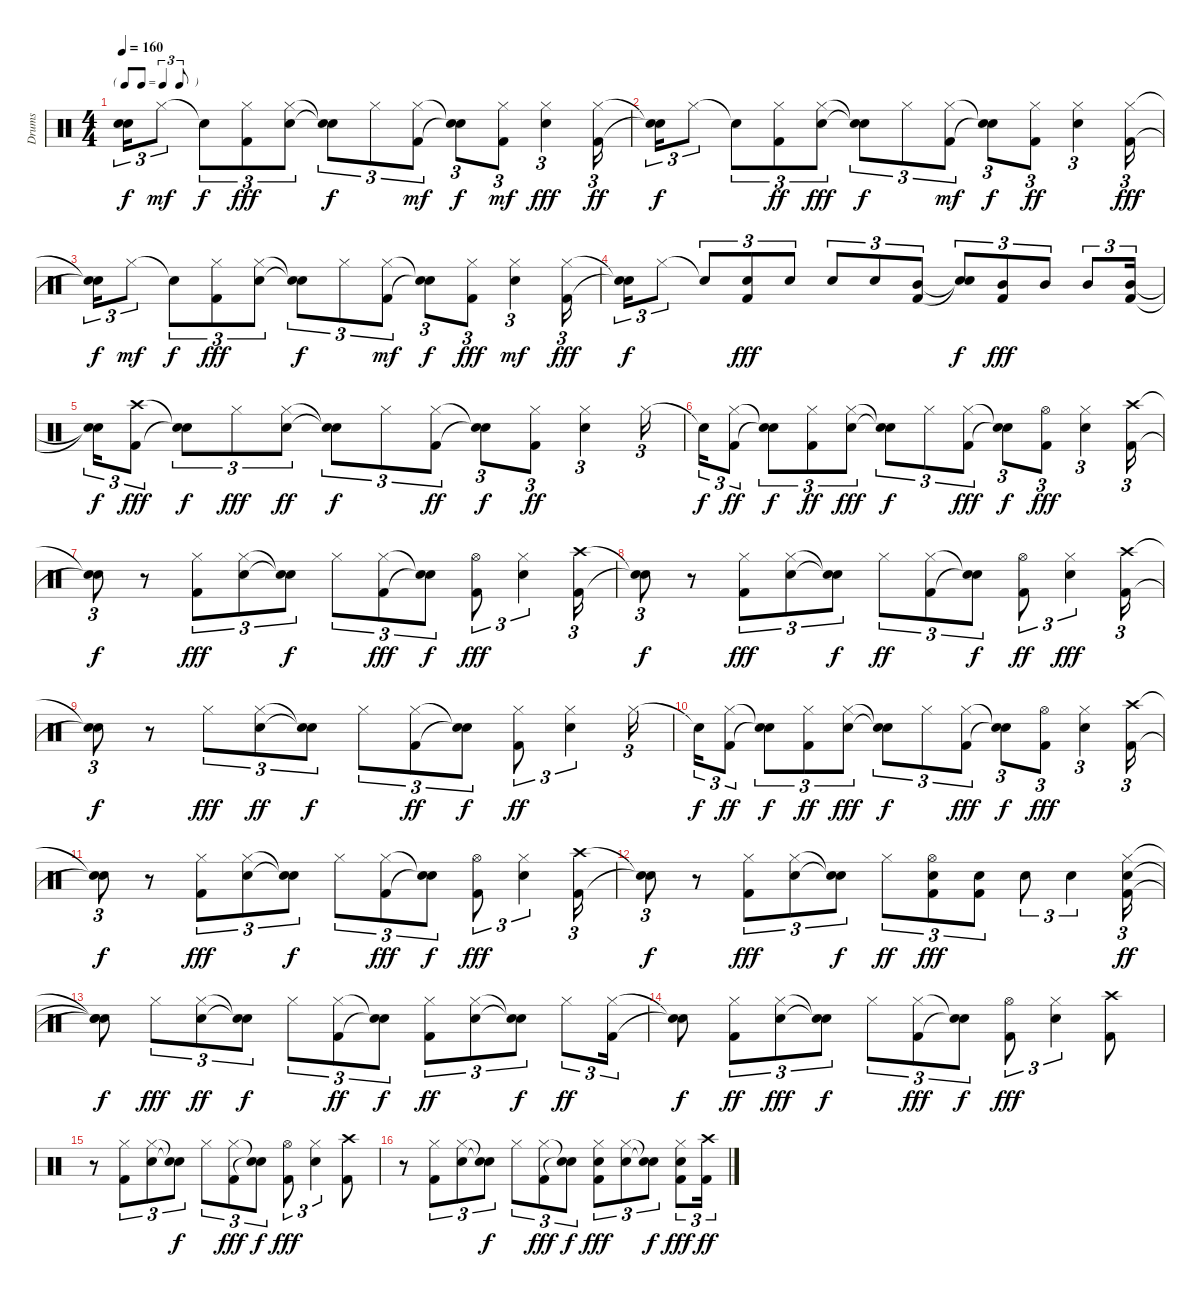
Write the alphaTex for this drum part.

\track ("Drums" "Drums") {instrument percussion}
\staff {score}
\articulation defaults
\ts (4 4)
\tf triplet8th
\tempo 160
\clef neutral
\ks c
("Snare (hit)"{t} "Snare (hit)"{t}).16{tu (3 2) dy f} "Hi-Hat (closed)".8{tu (3 2) dy mf} "Snare (hit)"{t}.8{tu (3 2) dy f} ("Kick (hit) 2" "Hi-Hat (closed)").8{tu (3 2) dy fff} ("Electric Snare (hit)" "Hi-Hat (closed)").8{tu (3 2)} ("Snare (hit)"{t} "Snare (hit)"{t}).8{tu (3 2) dy f} "Hi-Hat (closed)".8{tu (3 2)} ("Kick (hit) 2" "Hi-Hat (closed)").8{tu (3 2) dy mf} ("Snare (hit)"{t} "Snare (hit)"{t}).8{tu (3 2) dy f} ("Kick (hit) 2" "Hi-Hat (closed)").8{tu (3 2) dy mf} ("Electric Snare (hit)" "Hi-Hat (closed)").4{tu (3 2) dy fff} ("Kick (hit) 2" "Hi-Hat (closed)").16{tu (3 2) dy ff} |
("Snare (hit)"{t} "Snare (hit)"{t}).16{tu (3 2) dy f} "Hi-Hat (closed)".8{tu (3 2)} "Snare (hit)"{t}.8{tu (3 2)} ("Kick (hit) 2" "Hi-Hat (closed)").8{tu (3 2) dy ff} ("Hi-Hat (closed)" "Electric Snare (hit)").8{tu (3 2) dy fff} ("Snare (hit)"{t} "Snare (hit)"{t}).8{tu (3 2) dy f} "Hi-Hat (closed)".8{tu (3 2)} ("Kick (hit) 2" "Hi-Hat (closed)").8{tu (3 2) dy mf} ("Snare (hit)"{t} "Snare (hit)"{t}).8{tu (3 2) dy f} ("Kick (hit) 2" "Hi-Hat (closed)").8{tu (3 2) dy ff} ("Electric Snare (hit)" "Hi-Hat (closed)").4{tu (3 2)} ("Kick (hit) 2" "Hi-Hat (closed)").16{tu (3 2) dy fff} |
("Snare (hit)"{t} "Snare (hit)"{t}).16{tu (3 2) dy f} "Hi-Hat (closed)".8{tu (3 2) dy mf} "Snare (hit)"{t}.8{tu (3 2) dy f} ("Kick (hit) 2" "Hi-Hat (closed)").8{tu (3 2) dy fff} ("Hi-Hat (closed)" "Electric Snare (hit)").8{tu (3 2)} ("Snare (hit)"{t} "Snare (hit)"{t}).8{tu (3 2) dy f} "Hi-Hat (closed)".8{tu (3 2)} ("Kick (hit) 2" "Hi-Hat (closed)").8{tu (3 2) dy mf} ("Snare (hit)"{t} "Snare (hit)"{t}).8{tu (3 2) dy f} ("Kick (hit) 2" "Hi-Hat (closed)").8{tu (3 2) dy fff} ("Electric Snare (hit)" "Hi-Hat (closed)").4{tu (3 2) dy mf} ("Kick (hit) 2" "Hi-Hat (closed)").16{tu (3 2) dy fff} |
("Snare (hit)"{t} "Snare (hit)"{t}).16{tu (3 2) dy f} "Hi-Hat (closed)".8{tu (3 2)} "Snare (hit)"{t}.8{tu (3 2)} ("Kick (hit) 2" "Electric Snare (hit)").8{tu (3 2) dy fff} "Electric Snare (hit)".8{tu (3 2)} "Electric Snare (hit)".8{tu (3 2)} "Electric Snare (hit)".8{tu (3 2)} ("Kick (hit) 2" "Mid Tom (hit)").8{tu (3 2)} ("Snare (hit)"{t} "Snare (hit)"{t}).8{tu (3 2) dy f} ("Kick (hit) 2" "Mid Tom (hit)").8{tu (3 2) dy fff} "Mid Tom (hit)".8{tu (3 2)} "Mid Tom (hit)".8{tu (3 2)} ("Kick (hit) 2" "Mid Tom (hit)").16{tu (3 2)} |
("Snare (hit)"{t} "Snare (hit)"{t}).16{tu (3 2) dy f} ("Kick (hit) 2" "Crash high (hit)").8{tu (3 2) dy fff} ("Snare (hit)"{t} "Snare (hit)"{t}).8{tu (3 2) dy f} "Hi-Hat (closed)".8{tu (3 2) dy fff} ("Electric Snare (hit)" "Hi-Hat (closed)").8{tu (3 2) dy ff} ("Snare (hit)"{t} "Snare (hit)"{t}).8{tu (3 2) dy f} "Hi-Hat (closed)".8{tu (3 2)} ("Kick (hit) 2" "Hi-Hat (closed)").8{tu (3 2) dy ff} ("Snare (hit)"{t} "Snare (hit)"{t}).8{tu (3 2) dy f} ("Kick (hit) 2" "Hi-Hat (closed)").8{tu (3 2) dy ff} ("Electric Snare (hit)" "Hi-Hat (closed)").4{tu (3 2)} "Hi-Hat (closed)".16{tu (3 2)} |
"Snare (hit)"{t}.16{tu (3 2) dy f} ("Kick (hit) 2" "Hi-Hat (closed)").8{tu (3 2) dy ff} ("Snare (hit)"{t} "Snare (hit)"{t}).8{tu (3 2) dy f} ("Kick (hit) 2" "Hi-Hat (closed)").8{tu (3 2) dy ff} ("Hi-Hat (closed)" "Electric Snare (hit)").8{tu (3 2) dy fff} ("Snare (hit)"{t} "Snare (hit)"{t}).8{tu (3 2) dy f} "Hi-Hat (closed)".8{tu (3 2)} ("Kick (hit) 2" "Hi-Hat (closed)").8{tu (3 2) dy fff} ("Snare (hit)"{t} "Snare (hit)"{t}).8{tu (3 2) dy f} ("Kick (hit) 2" "Hi-Hat (open)").8{tu (3 2) dy fff} ("Electric Snare (hit)" "Hi-Hat (closed)").4{tu (3 2)} ("Kick (hit) 2" "Crash high (hit)").16{tu (3 2)} |
("Snare (hit)"{t} "Snare (hit)"{t}).8{tu (3 2) dy f} r.8 ("Kick (hit) 2" "Hi-Hat (closed)").8{tu (3 2) dy fff} ("Hi-Hat (closed)" "Electric Snare (hit)").8{tu (3 2)} ("Snare (hit)"{t} "Snare (hit)"{t}).8{tu (3 2) dy f} "Hi-Hat (closed)".8{tu (3 2)} ("Kick (hit) 2" "Hi-Hat (closed)").8{tu (3 2) dy fff} ("Snare (hit)"{t} "Snare (hit)"{t}).8{tu (3 2) dy f} ("Kick (hit) 2" "Hi-Hat (open)").8{tu (3 2) dy fff} ("Hi-Hat (closed)" "Electric Snare (hit)").4{tu (3 2)} ("Kick (hit) 2" "Crash high (hit)").16{tu (3 2)} |
("Snare (hit)"{t} "Snare (hit)"{t}).8{tu (3 2) dy f} r.8 ("Kick (hit) 2" "Hi-Hat (closed)").8{tu (3 2) dy fff} ("Hi-Hat (closed)" "Electric Snare (hit)").8{tu (3 2)} ("Snare (hit)"{t} "Snare (hit)"{t}).8{tu (3 2) dy f} "Hi-Hat (closed)".8{tu (3 2) dy ff} ("Kick (hit) 2" "Hi-Hat (closed)").8{tu (3 2)} ("Snare (hit)"{t} "Snare (hit)"{t}).8{tu (3 2) dy f} ("Kick (hit) 2" "Hi-Hat (open)").8{tu (3 2) dy ff} ("Hi-Hat (closed)" "Electric Snare (hit)").4{tu (3 2) dy fff} ("Kick (hit) 2" "Crash high (hit)").16{tu (3 2)} |
("Snare (hit)"{t} "Snare (hit)"{t}).8{tu (3 2) dy f} r.8 "Hi-Hat (closed)".8{tu (3 2) dy fff} ("Electric Snare (hit)" "Hi-Hat (closed)").8{tu (3 2) dy ff} ("Snare (hit)"{t} "Snare (hit)"{t}).8{tu (3 2) dy f} "Hi-Hat (closed)".8{tu (3 2)} ("Kick (hit) 2" "Hi-Hat (closed)").8{tu (3 2) dy ff} ("Snare (hit)"{t} "Snare (hit)"{t}).8{tu (3 2) dy f} ("Kick (hit) 2" "Hi-Hat (closed)").8{tu (3 2) dy ff} ("Electric Snare (hit)" "Hi-Hat (closed)").4{tu (3 2)} "Hi-Hat (closed)".16{tu (3 2)} |
"Snare (hit)"{t}.16{tu (3 2) dy f} ("Kick (hit) 2" "Hi-Hat (closed)").8{tu (3 2) dy ff} ("Snare (hit)"{t} "Snare (hit)"{t}).8{tu (3 2) dy f} ("Kick (hit) 2" "Hi-Hat (closed)").8{tu (3 2) dy ff} ("Hi-Hat (closed)" "Electric Snare (hit)").8{tu (3 2) dy fff} ("Snare (hit)"{t} "Snare (hit)"{t}).8{tu (3 2) dy f} "Hi-Hat (closed)".8{tu (3 2)} ("Kick (hit) 2" "Hi-Hat (closed)").8{tu (3 2) dy fff} ("Snare (hit)"{t} "Snare (hit)"{t}).8{tu (3 2) dy f} ("Kick (hit) 2" "Hi-Hat (open)").8{tu (3 2) dy fff} ("Electric Snare (hit)" "Hi-Hat (closed)").4{tu (3 2)} ("Kick (hit) 2" "Crash high (hit)").16{tu (3 2)} |
("Snare (hit)"{t} "Snare (hit)"{t}).8{tu (3 2) dy f} r.8 ("Kick (hit) 2" "Hi-Hat (closed)").8{tu (3 2) dy fff} ("Hi-Hat (closed)" "Electric Snare (hit)").8{tu (3 2)} ("Snare (hit)"{t} "Snare (hit)"{t}).8{tu (3 2) dy f} "Hi-Hat (closed)".8{tu (3 2)} ("Kick (hit) 2" "Hi-Hat (closed)").8{tu (3 2) dy fff} ("Snare (hit)"{t} "Snare (hit)"{t}).8{tu (3 2) dy f} ("Kick (hit) 2" "Hi-Hat (open)").8{tu (3 2) dy fff} ("Hi-Hat (closed)" "Electric Snare (hit)").4{tu (3 2)} ("Kick (hit) 2" "Crash high (hit)").16{tu (3 2)} |
("Snare (hit)"{t} "Snare (hit)"{t}).8{tu (3 2) dy f} r.8 ("Kick (hit) 2" "Hi-Hat (closed)").8{tu (3 2) dy fff} ("Hi-Hat (closed)" "Electric Snare (hit)").8{tu (3 2)} ("Snare (hit)"{t} "Snare (hit)"{t}).8{tu (3 2) dy f} "Hi-Hat (closed)".8{tu (3 2) dy ff} ("Kick (hit) 2" "Hi-Hat (open)" "Electric Snare (hit)").8{tu (3 2) dy fff} ("Electric Snare (hit)" "Kick (hit) 2").8{tu (3 2)} "Electric Snare (hit)".8{tu (3 2)} "Electric Snare (hit)".4{tu (3 2)} ("Electric Snare (hit)" "Kick (hit) 2" "Hi-Hat (closed)").16{tu (3 2) dy ff} |
("Snare (hit)"{t} "Snare (hit)"{t} "Snare (hit)"{t}).8{dy f} "Hi-Hat (closed)".8{tu (3 2) dy fff} ("Electric Snare (hit)" "Hi-Hat (closed)").8{tu (3 2) dy ff} ("Snare (hit)"{t} "Snare (hit)"{t}).8{tu (3 2) dy f} "Hi-Hat (closed)".8{tu (3 2)} ("Kick (hit) 2" "Hi-Hat (closed)").8{tu (3 2) dy ff} ("Snare (hit)"{t} "Snare (hit)"{t}).8{tu (3 2) dy f} ("Kick (hit) 2" "Hi-Hat (closed)").8{tu (3 2) dy ff} ("Electric Snare (hit)" "Hi-Hat (closed)").8{tu (3 2)} ("Snare (hit)"{t} "Snare (hit)"{t}).8{tu (3 2) dy f} "Hi-Hat (closed)".8{tu (3 2) dy ff} ("Kick (hit) 2" "Hi-Hat (closed)").16{tu (3 2)} |
("Snare (hit)"{t} "Snare (hit)"{t}).8{dy f} ("Kick (hit) 2" "Hi-Hat (closed)").8{tu (3 2) dy ff} ("Hi-Hat (closed)" "Electric Snare (hit)").8{tu (3 2) dy fff} ("Snare (hit)"{t} "Snare (hit)"{t}).8{tu (3 2) dy f} "Hi-Hat (closed)".8{tu (3 2)} ("Kick (hit) 2" "Hi-Hat (closed)").8{tu (3 2) dy fff} ("Snare (hit)"{t} "Snare (hit)"{t}).8{tu (3 2) dy f} ("Kick (hit) 2" "Hi-Hat (open)").8{tu (3 2) dy fff} ("Electric Snare (hit)" "Hi-Hat (closed)").4{tu (3 2)} ("Kick (hit) 2" "Crash high (hit)").8 |
r.8 ("Kick (hit) 2" "Hi-Hat (closed)").8{tu (3 2)} ("Hi-Hat (closed)" "Electric Snare (hit)").8{tu (3 2)} ("Snare (hit)"{t} "Snare (hit)"{t}).8{tu (3 2) dy f} "Hi-Hat (closed)".8{tu (3 2)} ("Kick (hit) 2" "Hi-Hat (closed)").8{tu (3 2) dy fff} ("Snare (hit)"{t} "Snare (hit)"{t}).8{tu (3 2) dy f} ("Kick (hit) 2" "Hi-Hat (open)").8{tu (3 2) dy fff} ("Hi-Hat (closed)" "Electric Snare (hit)").4{tu (3 2)} ("Kick (hit) 2" "Crash high (hit)").8 |
r.8 ("Kick (hit) 2" "Hi-Hat (closed)").8{tu (3 2)} ("Hi-Hat (closed)" "Electric Snare (hit)").8{tu (3 2)} ("Snare (hit)"{t} "Snare (hit)"{t}).8{tu (3 2) dy f} "Hi-Hat (closed)".8{tu (3 2)} ("Kick (hit) 2" "Hi-Hat (closed)").8{tu (3 2) dy fff} ("Snare (hit)"{t} "Snare (hit)"{t}).8{tu (3 2) dy f} ("Kick (hit) 2" "Electric Snare (hit)" "Hi-Hat (closed)").8{tu (3 2) dy fff} ("Hi-Hat (closed)" "Electric Snare (hit)").8{tu (3 2)} ("Snare (hit)"{t} "Snare (hit)"{t}).8{tu (3 2) dy f} ("Kick (hit) 2" "Hi-Hat (closed)" "Electric Snare (hit)").8{tu (3 2) dy fff} ("Kick (hit) 2" "Crash high (hit)").16{tu (3 2) dy ff}
